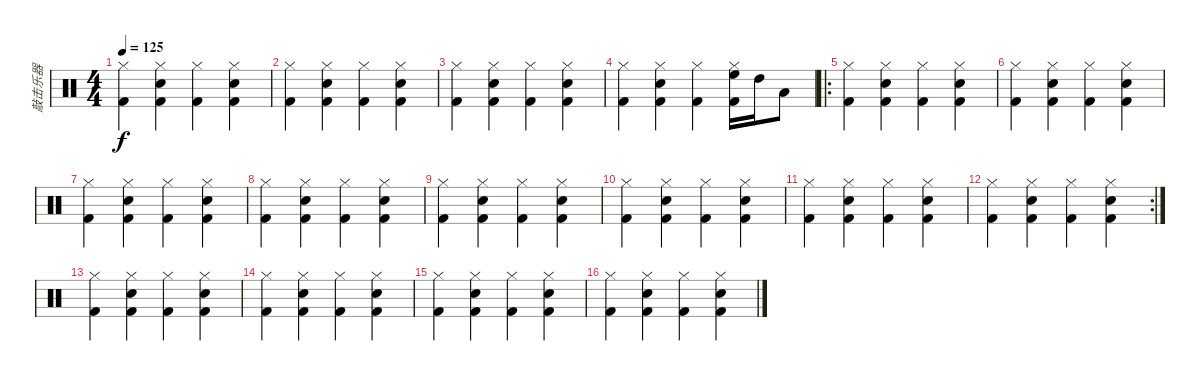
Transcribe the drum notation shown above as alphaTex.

\track ("敲击乐器" "敲击乐器") {solo instrument percussion}
\staff {score}
\articulation defaults
\ts (4 4)
\tempo 125
\clef neutral
\ks c
("Hi-Hat (closed)" "Kick (hit) 2").4{dy f} ("Kick (hit) 2" "Hand Clap (hit)" "Hi-Hat (closed)").4 ("Kick (hit) 2" "Hi-Hat (closed)").4 ("Kick (hit) 2" "Hi-Hat (closed)" "Hand Clap (hit)").4 |
("Hi-Hat (closed)" "Kick (hit) 2").4 ("Kick (hit) 2" "Hand Clap (hit)" "Hi-Hat (closed)").4 ("Kick (hit) 2" "Hi-Hat (closed)").4 ("Kick (hit) 2" "Hi-Hat (closed)" "Hand Clap (hit)").4 |
("Hi-Hat (closed)" "Kick (hit) 2").4 ("Kick (hit) 2" "Hand Clap (hit)" "Hi-Hat (closed)").4 ("Kick (hit) 2" "Hi-Hat (closed)").4 ("Kick (hit) 2" "Hi-Hat (closed)" "Hand Clap (hit)").4 |
("Hi-Hat (closed)" "Kick (hit) 2").4 ("Kick (hit) 2" "Hand Clap (hit)" "Hi-Hat (closed)").4 ("Kick (hit) 2" "Hi-Hat (closed)").4 ("Kick (hit) 2" "High Floor Tom (hit)" "Hi-Hat (closed)").16 "High Tom (hit)".16 "Low Tom (hit)".8 |
\ro
("Hi-Hat (closed)" "Kick (hit) 2").4 ("Kick (hit) 2" "Hand Clap (hit)" "Hi-Hat (closed)").4 ("Kick (hit) 2" "Hi-Hat (closed)").4 ("Kick (hit) 2" "Hi-Hat (closed)" "Hand Clap (hit)").4 |
("Hi-Hat (closed)" "Kick (hit) 2").4 ("Kick (hit) 2" "Hand Clap (hit)" "Hi-Hat (closed)").4 ("Kick (hit) 2" "Hi-Hat (closed)").4 ("Kick (hit) 2" "Hi-Hat (closed)" "Hand Clap (hit)").4 |
("Hi-Hat (closed)" "Kick (hit) 2").4 ("Kick (hit) 2" "Hand Clap (hit)" "Hi-Hat (closed)").4 ("Kick (hit) 2" "Hi-Hat (closed)").4 ("Kick (hit) 2" "Hi-Hat (closed)" "Hand Clap (hit)").4 |
("Hi-Hat (closed)" "Kick (hit) 2").4 ("Kick (hit) 2" "Hand Clap (hit)" "Hi-Hat (closed)").4 ("Kick (hit) 2" "Hi-Hat (closed)").4 ("Kick (hit) 2" "Hi-Hat (closed)" "Hand Clap (hit)").4 |
("Hi-Hat (closed)" "Kick (hit) 2").4 ("Kick (hit) 2" "Hand Clap (hit)" "Hi-Hat (closed)").4 ("Kick (hit) 2" "Hi-Hat (closed)").4 ("Kick (hit) 2" "Hi-Hat (closed)" "Hand Clap (hit)").4 |
("Hi-Hat (closed)" "Kick (hit) 2").4 ("Kick (hit) 2" "Hand Clap (hit)" "Hi-Hat (closed)").4 ("Kick (hit) 2" "Hi-Hat (closed)").4 ("Kick (hit) 2" "Hi-Hat (closed)" "Hand Clap (hit)").4 |
("Hi-Hat (closed)" "Kick (hit) 2").4 ("Kick (hit) 2" "Hand Clap (hit)" "Hi-Hat (closed)").4 ("Kick (hit) 2" "Hi-Hat (closed)").4 ("Kick (hit) 2" "Hi-Hat (closed)" "Hand Clap (hit)").4 |
\rc 2
("Hi-Hat (closed)" "Kick (hit) 2").4 ("Kick (hit) 2" "Hand Clap (hit)" "Hi-Hat (closed)").4 ("Kick (hit) 2" "Hi-Hat (closed)").4 ("Kick (hit) 2" "Hi-Hat (closed)" "Hand Clap (hit)").4 |
("Hi-Hat (closed)" "Kick (hit) 2").4 ("Kick (hit) 2" "Hand Clap (hit)" "Hi-Hat (closed)").4 ("Kick (hit) 2" "Hi-Hat (closed)").4 ("Kick (hit) 2" "Hi-Hat (closed)" "Hand Clap (hit)").4 |
("Hi-Hat (closed)" "Kick (hit) 2").4 ("Kick (hit) 2" "Hand Clap (hit)" "Hi-Hat (closed)").4 ("Kick (hit) 2" "Hi-Hat (closed)").4 ("Kick (hit) 2" "Hi-Hat (closed)" "Hand Clap (hit)").4 |
("Hi-Hat (closed)" "Kick (hit) 2").4 ("Kick (hit) 2" "Hand Clap (hit)" "Hi-Hat (closed)").4 ("Kick (hit) 2" "Hi-Hat (closed)").4 ("Kick (hit) 2" "Hi-Hat (closed)" "Hand Clap (hit)").4 |
("Hi-Hat (closed)" "Kick (hit) 2").4 ("Kick (hit) 2" "Hand Clap (hit)" "Hi-Hat (closed)").4 ("Kick (hit) 2" "Hi-Hat (closed)").4 ("Kick (hit) 2" "Hi-Hat (closed)" "Hand Clap (hit)").4
